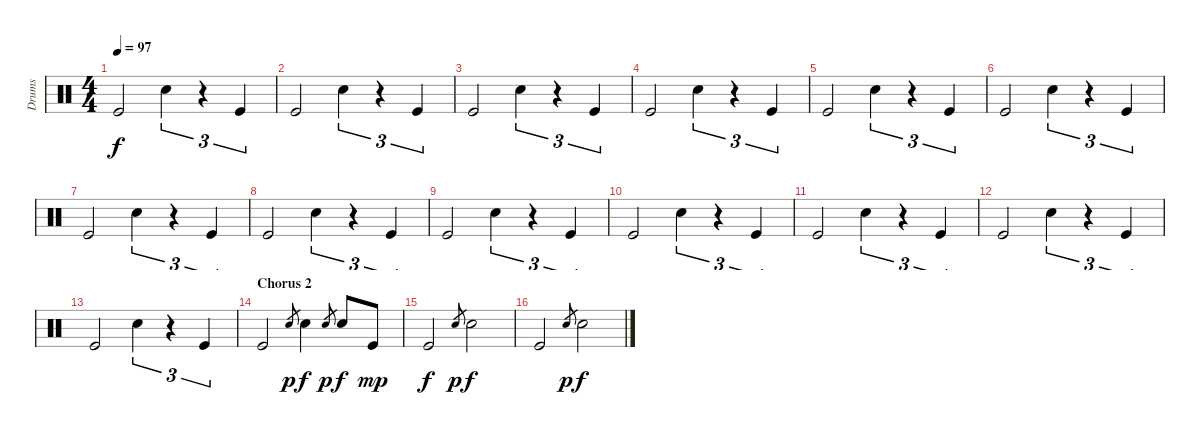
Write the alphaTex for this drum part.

\track ("Drums" "Drums") {instrument percussion}
\staff {score}
\articulation defaults
\ts (4 4)
\tempo 97
\clef neutral
\ks c "Kick (hit)".2{dy f} "Snare (hit) 2".4{tu (3 2)}
r.4{tu (3 2)} "Kick (hit)".4{tu (3 2)} |
"Kick (hit)".2 "Snare (hit) 2".4{tu (3 2)} r.4{tu (3 2)} "Kick (hit)".4{tu (3 2)} |
"Kick (hit)".2 "Snare (hit) 2".4{tu (3 2)} r.4{tu (3 2)} "Kick (hit)".4{tu (3 2)} |
"Kick (hit)".2 "Snare (hit) 2".4{tu (3 2)} r.4{tu (3 2)} "Kick (hit)".4{tu (3 2)} |
"Kick (hit)".2 "Snare (hit) 2".4{tu (3 2)} r.4{tu (3 2)} "Kick (hit)".4{tu (3 2)} |
"Kick (hit)".2 "Snare (hit) 2".4{tu (3 2)} r.4{tu (3 2)} "Kick (hit)".4{tu (3 2)} |
"Kick (hit)".2 "Snare (hit) 2".4{tu (3 2)} r.4{tu (3 2)} "Kick (hit)".4{tu (3 2)} |
"Kick (hit)".2 "Snare (hit) 2".4{tu (3 2)} r.4{tu (3 2)} "Kick (hit)".4{tu (3 2)} |
"Kick (hit)".2 "Snare (hit) 2".4{tu (3 2)} r.4{tu (3 2)} "Kick (hit)".4{tu (3 2)} |
"Kick (hit)".2 "Snare (hit) 2".4{tu (3 2)} r.4{tu (3 2)} "Kick (hit)".4{tu (3 2)} |
"Kick (hit)".2 "Snare (hit) 2".4{tu (3 2)} r.4{tu (3 2)} "Kick (hit)".4{tu (3 2)} |
"Kick (hit)".2 "Snare (hit) 2".4{tu (3 2)} r.4{tu (3 2)} "Kick (hit)".4{tu (3 2)} |
"Kick (hit)".2 "Snare (hit) 2".4{tu (3 2)} r.4{tu (3 2)} "Kick (hit)".4{tu (3 2)} |
\section ("" "Chorus 2")
"Kick (hit)".2 "Snare (hit) 2".8{gr dy p} "Snare (hit) 2".4{dy f} "Snare (hit) 2".8{gr dy p} "Snare (hit) 2".8{dy f} "Kick (hit)".8{dy mp} |
"Kick (hit)".2{dy f} "Snare (hit) 2".8{gr dy p} "Snare (hit) 2".2{dy f} |
"Kick (hit)".2 "Snare (hit) 2".8{gr dy p} "Snare (hit) 2".2{dy f}
